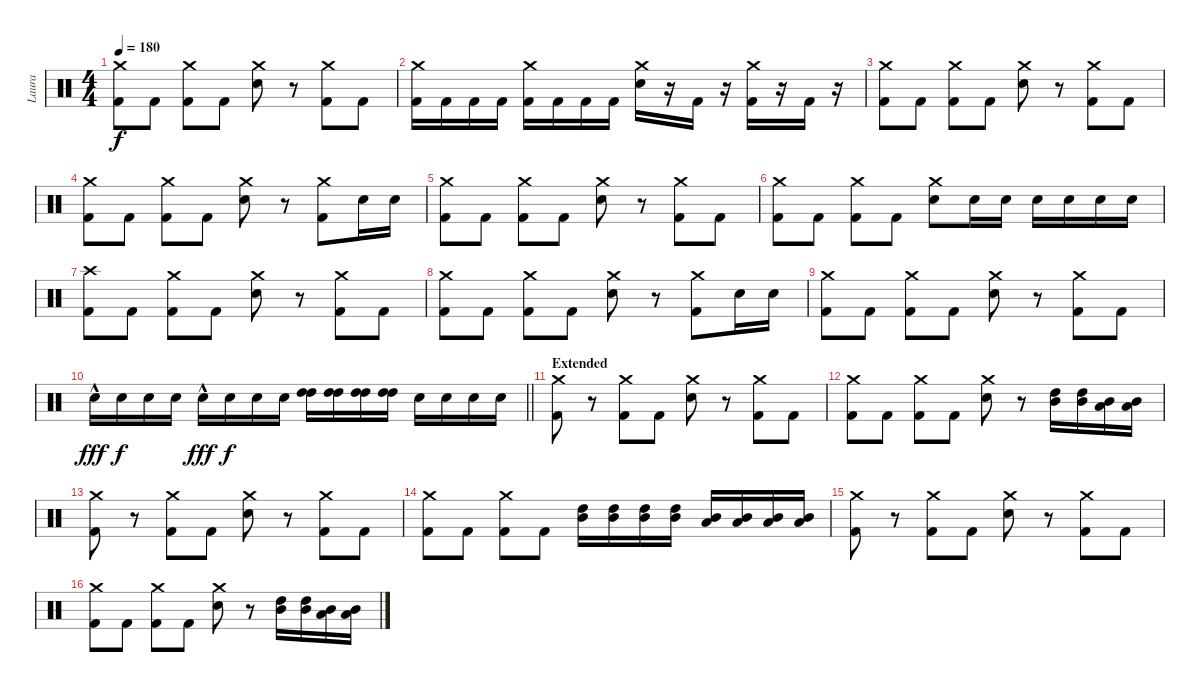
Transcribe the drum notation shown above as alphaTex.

\track ("Laura" "Laura") {instrument percussion}
\staff {score}
\articulation defaults
\ts (4 4)
\tempo 180
\clef neutral
\ks c
("Crash medium (hit)" "Kick (hit) 2").8{dy f} "Kick (hit) 2".8 ("Crash medium (hit)" "Kick (hit) 2").8 "Kick (hit) 2".8 ("Crash medium (hit)" "Electric Snare (hit)").8 r.8 ("Crash medium (hit)" "Kick (hit) 2").8 "Kick (hit) 2".8 |
("Crash medium (hit)" "Kick (hit) 2").16 "Kick (hit) 2".16 "Kick (hit) 2".16 "Kick (hit) 2".16 ("Crash medium (hit)" "Kick (hit) 2").16 "Kick (hit) 2".16 "Kick (hit) 2".16 "Kick (hit) 2".16 ("Crash medium (hit)" "Electric Snare (hit)").16 r.16 "Kick (hit) 2".16 r.16 ("Crash medium (hit)" "Kick (hit) 2").16 r.16 "Kick (hit) 2".16 r.16 |
("Crash medium (hit)" "Kick (hit) 2").8 "Kick (hit) 2".8 ("Crash medium (hit)" "Kick (hit) 2").8 "Kick (hit) 2".8 ("Crash medium (hit)" "Electric Snare (hit)").8 r.8 ("Crash medium (hit)" "Kick (hit) 2").8 "Kick (hit) 2".8 |
("Crash medium (hit)" "Kick (hit) 2").8 "Kick (hit) 2".8 ("Crash medium (hit)" "Kick (hit) 2").8 "Kick (hit) 2".8 ("Crash medium (hit)" "Electric Snare (hit)").8 r.8 ("Crash medium (hit)" "Kick (hit) 2").8 "Electric Snare (hit)".16 "Electric Snare (hit)".16 |
("Crash medium (hit)" "Kick (hit) 2").8 "Kick (hit) 2".8 ("Crash medium (hit)" "Kick (hit) 2").8 "Kick (hit) 2".8 ("Crash medium (hit)" "Electric Snare (hit)").8 r.8 ("Crash medium (hit)" "Kick (hit) 2").8 "Kick (hit) 2".8 |
("Crash medium (hit)" "Kick (hit) 2").8 "Kick (hit) 2".8 ("Crash medium (hit)" "Kick (hit) 2").8 "Kick (hit) 2".8 ("Crash medium (hit)" "Electric Snare (hit)").8 "Electric Snare (hit)".16 "Electric Snare (hit)".16 "Electric Snare (hit)".16 "Electric Snare (hit)".16 "Electric Snare (hit)".16 "Electric Snare (hit)".16 |
("Crash high (hit)" "Kick (hit) 2").8 "Kick (hit) 2".8 ("Crash medium (hit)" "Kick (hit) 2").8 "Kick (hit) 2".8 ("Crash medium (hit)" "Electric Snare (hit)").8 r.8 ("Crash medium (hit)" "Kick (hit) 2").8 "Kick (hit) 2".8 |
("Crash medium (hit)" "Kick (hit) 2").8 "Kick (hit) 2".8 ("Crash medium (hit)" "Kick (hit) 2").8 "Kick (hit) 2".8 ("Crash medium (hit)" "Electric Snare (hit)").8 r.8 ("Crash medium (hit)" "Kick (hit) 2").8 "Electric Snare (hit)".16 "Electric Snare (hit)".16 |
("Crash medium (hit)" "Kick (hit) 2").8 "Kick (hit) 2".8 ("Crash medium (hit)" "Kick (hit) 2").8 "Kick (hit) 2".8 ("Crash medium (hit)" "Electric Snare (hit)").8 r.8 ("Crash medium (hit)" "Kick (hit) 2").8 "Kick (hit) 2".8 |
\barLineRight lightlight "Electric Snare (hit)"{hac}.16{dy fff} "Electric Snare (hit)".16{dy f} "Electric Snare (hit)".16 "Electric Snare (hit)".16 "Electric Snare (hit)"{hac}.16{dy fff} "Electric Snare (hit)".16{dy f} "Electric Snare (hit)".16 "Electric Snare (hit)".16
("High Tom (hit)" "High Tom (hit)").16 ("High Tom (hit)" "High Tom (hit)").16 ("High Tom (hit)" "High Tom (hit)").16 ("High Tom (hit)" "High Tom (hit)").16 "Electric Snare (hit)".16 "Electric Snare (hit)".16 "Electric Snare (hit)".16 "Electric Snare (hit)".16 |
\section ("" "Extended")
("Crash medium (hit)" "Kick (hit) 2").8 r.8 ("Crash medium (hit)" "Kick (hit) 2").8 "Kick (hit) 2".8 ("Crash medium (hit)" "Electric Snare (hit)").8 r.8 ("Crash medium (hit)" "Kick (hit) 2").8 "Kick (hit) 2".8 |
("Crash medium (hit)" "Kick (hit) 2").8 "Kick (hit) 2".8 ("Crash medium (hit)" "Kick (hit) 2").8 "Kick (hit) 2".8 ("Crash medium (hit)" "Electric Snare (hit)").8 r.8 ("High Tom (hit)" "Mid Tom (hit)").16 ("High Tom (hit)" "Mid Tom (hit)").16 ("Mid Tom (hit)" "Low Tom (hit)").16 ("Mid Tom (hit)" "Low Tom (hit)").16 |
("Crash medium (hit)" "Kick (hit) 2").8 r.8 ("Crash medium (hit)" "Kick (hit) 2").8 "Kick (hit) 2".8 ("Crash medium (hit)" "Electric Snare (hit)").8 r.8 ("Crash medium (hit)" "Kick (hit) 2").8 "Kick (hit) 2".8 |
("Crash medium (hit)" "Kick (hit) 2").8 "Kick (hit) 2".8 ("Crash medium (hit)" "Kick (hit) 2").8 "Kick (hit) 2".8 ("High Tom (hit)" "Mid Tom (hit)").16 ("High Tom (hit)" "Mid Tom (hit)").16 ("High Tom (hit)" "Mid Tom (hit)").16 ("High Tom (hit)" "Mid Tom (hit)").16 ("Mid Tom (hit)" "Low Tom (hit)").16 ("Mid Tom (hit)" "Low Tom (hit)").16 ("Mid Tom (hit)" "Low Tom (hit)").16 ("Mid Tom (hit)" "Low Tom (hit)").16 |
("Crash medium (hit)" "Kick (hit) 2").8 r.8 ("Crash medium (hit)" "Kick (hit) 2").8 "Kick (hit) 2".8 ("Crash medium (hit)" "Electric Snare (hit)").8 r.8 ("Crash medium (hit)" "Kick (hit) 2").8 "Kick (hit) 2".8 |
("Crash medium (hit)" "Kick (hit) 2").8 "Kick (hit) 2".8 ("Crash medium (hit)" "Kick (hit) 2").8 "Kick (hit) 2".8 ("Crash medium (hit)" "Electric Snare (hit)").8 r.8 ("High Tom (hit)" "Mid Tom (hit)").16 ("High Tom (hit)" "Mid Tom (hit)").16 ("Mid Tom (hit)" "Low Tom (hit)").16 ("Mid Tom (hit)" "Low Tom (hit)").16
